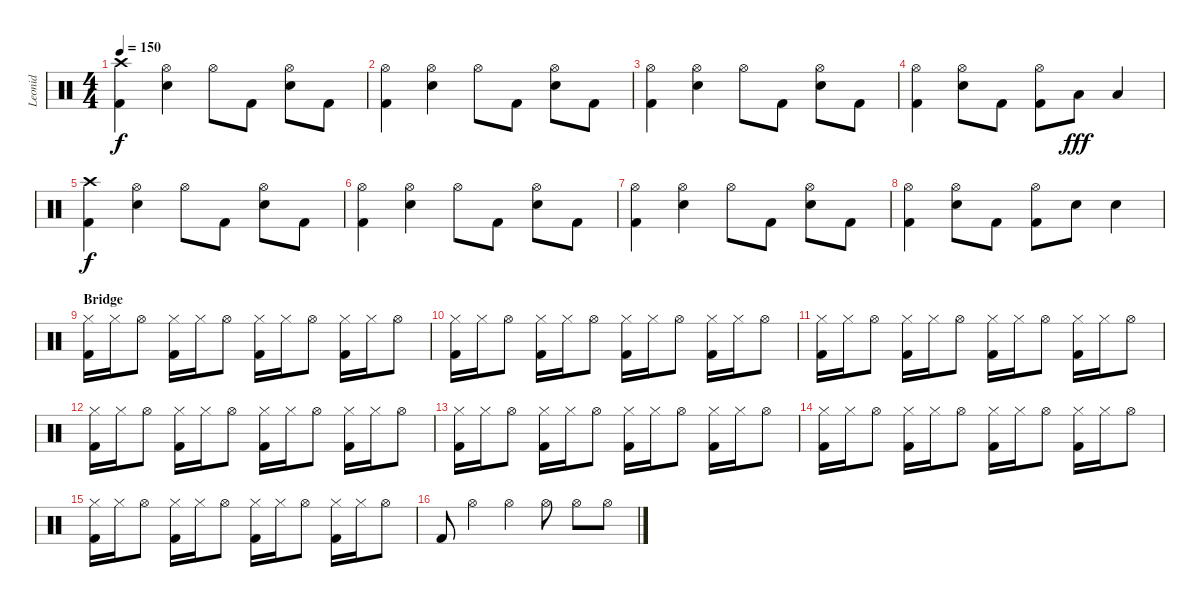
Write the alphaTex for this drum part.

\track ("Leonid" "Leonid") {instrument percussion}
\staff {score}
\articulation defaults
\ts (4 4)
\tempo 150
\clef neutral
\ks c
("Crash high (hit)" "Kick (hit) 2").4{dy f} ("Hi-Hat (open)" "Electric Snare (hit)").4 "Hi-Hat (open)".8 "Kick (hit) 2".8 ("Hi-Hat (open)" "Electric Snare (hit)").8 "Kick (hit) 2".8 |
("Hi-Hat (open)" "Kick (hit) 2").4 ("Hi-Hat (open)" "Electric Snare (hit)").4 "Hi-Hat (open)".8 "Kick (hit) 2".8 ("Hi-Hat (open)" "Electric Snare (hit)").8 "Kick (hit) 2".8 |
("Hi-Hat (open)" "Kick (hit) 2").4 ("Hi-Hat (open)" "Electric Snare (hit)").4 "Hi-Hat (open)".8 "Kick (hit) 2".8 ("Hi-Hat (open)" "Electric Snare (hit)").8 "Kick (hit) 2".8 |
("Hi-Hat (open)" "Kick (hit) 2").4 ("Hi-Hat (open)" "Electric Snare (hit)").8 "Kick (hit) 2".8 ("Hi-Hat (open)" "Kick (hit) 2").8 "Low Tom (hit)".8{dy fff} "Low Tom (hit)".4 |
("Crash high (hit)" "Kick (hit) 2").4{dy f} ("Hi-Hat (open)" "Electric Snare (hit)").4 "Hi-Hat (open)".8 "Kick (hit) 2".8 ("Hi-Hat (open)" "Electric Snare (hit)").8 "Kick (hit) 2".8 |
("Hi-Hat (open)" "Kick (hit) 2").4 ("Hi-Hat (open)" "Electric Snare (hit)").4 "Hi-Hat (open)".8 "Kick (hit) 2".8 ("Hi-Hat (open)" "Electric Snare (hit)").8 "Kick (hit) 2".8 |
("Hi-Hat (open)" "Kick (hit) 2").4 ("Hi-Hat (open)" "Electric Snare (hit)").4 "Hi-Hat (open)".8 "Kick (hit) 2".8 ("Hi-Hat (open)" "Electric Snare (hit)").8 "Kick (hit) 2".8 |
("Hi-Hat (open)" "Kick (hit) 2").4 ("Hi-Hat (open)" "Electric Snare (hit)").8 "Kick (hit) 2".8 ("Hi-Hat (open)" "Kick (hit) 2").8 "Electric Snare (hit)".8 "Electric Snare (hit)".4 |
\section ("" "Bridge")
("Hi-Hat (closed)" "Kick (hit) 2").16 "Hi-Hat (closed)".16 "Hi-Hat (open)".8 ("Hi-Hat (closed)" "Kick (hit) 2").16 "Hi-Hat (closed)".16 "Hi-Hat (open)".8 ("Hi-Hat (closed)" "Kick (hit) 2").16 "Hi-Hat (closed)".16 "Hi-Hat (open)".8 ("Hi-Hat (closed)" "Kick (hit) 2").16 "Hi-Hat (closed)".16 "Hi-Hat (open)".8 |
("Hi-Hat (closed)" "Kick (hit) 2").16 "Hi-Hat (closed)".16 "Hi-Hat (open)".8 ("Hi-Hat (closed)" "Kick (hit) 2").16 "Hi-Hat (closed)".16 "Hi-Hat (open)".8 ("Hi-Hat (closed)" "Kick (hit) 2").16 "Hi-Hat (closed)".16 "Hi-Hat (open)".8 ("Hi-Hat (closed)" "Kick (hit) 2").16 "Hi-Hat (closed)".16 "Hi-Hat (open)".8 |
("Hi-Hat (closed)" "Kick (hit) 2").16 "Hi-Hat (closed)".16 "Hi-Hat (open)".8 ("Hi-Hat (closed)" "Kick (hit) 2").16 "Hi-Hat (closed)".16 "Hi-Hat (open)".8 ("Hi-Hat (closed)" "Kick (hit) 2").16 "Hi-Hat (closed)".16 "Hi-Hat (open)".8 ("Hi-Hat (closed)" "Kick (hit) 2").16 "Hi-Hat (closed)".16 "Hi-Hat (open)".8 |
("Hi-Hat (closed)" "Kick (hit) 2").16 "Hi-Hat (closed)".16 "Hi-Hat (open)".8 ("Hi-Hat (closed)" "Kick (hit) 2").16 "Hi-Hat (closed)".16 "Hi-Hat (open)".8 ("Hi-Hat (closed)" "Kick (hit) 2").16 "Hi-Hat (closed)".16 "Hi-Hat (open)".8 ("Hi-Hat (closed)" "Kick (hit) 2").16 "Hi-Hat (closed)".16 "Hi-Hat (open)".8 |
("Hi-Hat (closed)" "Kick (hit) 2").16 "Hi-Hat (closed)".16 "Hi-Hat (open)".8 ("Hi-Hat (closed)" "Kick (hit) 2").16 "Hi-Hat (closed)".16 "Hi-Hat (open)".8 ("Hi-Hat (closed)" "Kick (hit) 2").16 "Hi-Hat (closed)".16 "Hi-Hat (open)".8 ("Hi-Hat (closed)" "Kick (hit) 2").16 "Hi-Hat (closed)".16 "Hi-Hat (open)".8 |
("Hi-Hat (closed)" "Kick (hit) 2").16 "Hi-Hat (closed)".16 "Hi-Hat (open)".8 ("Hi-Hat (closed)" "Kick (hit) 2").16 "Hi-Hat (closed)".16 "Hi-Hat (open)".8 ("Hi-Hat (closed)" "Kick (hit) 2").16 "Hi-Hat (closed)".16 "Hi-Hat (open)".8 ("Hi-Hat (closed)" "Kick (hit) 2").16 "Hi-Hat (closed)".16 "Hi-Hat (open)".8 |
("Hi-Hat (closed)" "Kick (hit) 2").16 "Hi-Hat (closed)".16 "Hi-Hat (open)".8 ("Hi-Hat (closed)" "Kick (hit) 2").16 "Hi-Hat (closed)".16 "Hi-Hat (open)".8 ("Hi-Hat (closed)" "Kick (hit) 2").16 "Hi-Hat (closed)".16 "Hi-Hat (open)".8 ("Hi-Hat (closed)" "Kick (hit) 2").16 "Hi-Hat (closed)".16 "Hi-Hat (open)".8 |
"Kick (hit) 2".8 "Hi-Hat (open)".4 "Hi-Hat (open)".4 "Hi-Hat (open)".8 "Hi-Hat (open)".8 "Hi-Hat (open)".8
